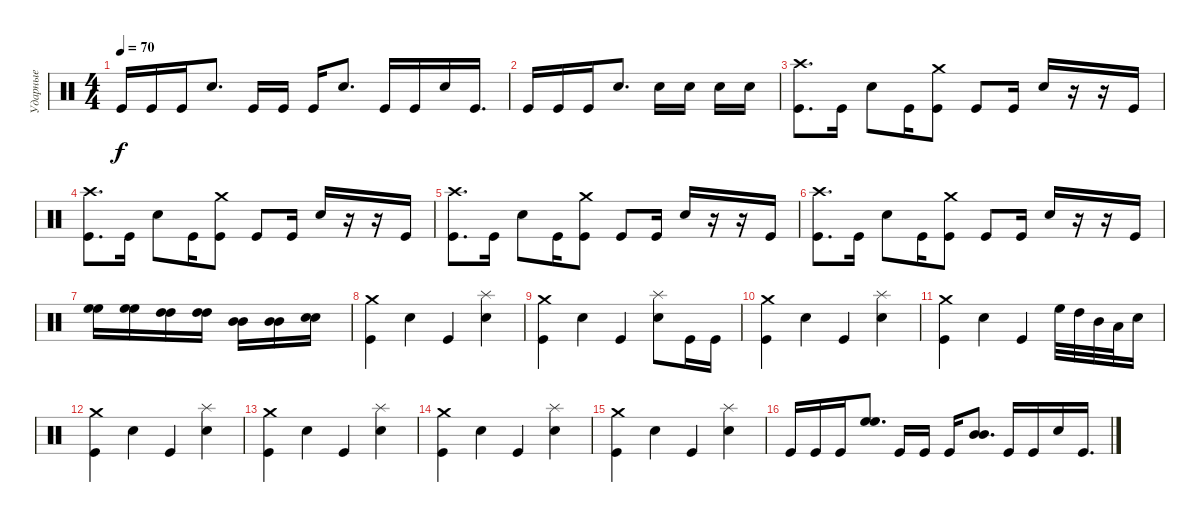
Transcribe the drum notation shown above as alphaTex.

\track ("Ударные" "Ударные") {instrument percussion}
\staff {score}
\articulation defaults
\ts (4 4)
\tempo 70
\clef neutral
\ks c "Kick (hit)".16{dy f} "Kick (hit)".16 "Kick (hit)".16 "Electric Snare (hit)".8{d} "Kick (hit)".16 "Kick (hit)".16 "Kick (hit)".16 "Electric Snare (hit)".8{d} "Kick (hit)".16 "Kick (hit)".16 "Electric Snare (hit)".16 "Kick (hit)".16{d}
|
"Kick (hit)".16 "Kick (hit)".16 "Kick (hit)".16 "Electric Snare (hit)".8{d} "Electric Snare (hit)".16 "Electric Snare (hit)".16 "Electric Snare (hit)".16 "Electric Snare (hit)".16 |
("Crash high (hit)" "Kick (hit)").8{d} "Kick (hit)".16 "Electric Snare (hit)".8 "Kick (hit)".16 ("Crash medium (hit)" "Kick (hit)").8 "Kick (hit)".8 "Kick (hit)".16 "Electric Snare (hit)".16 r.16 r.16 "Kick (hit)".16 |
("Crash high (hit)" "Kick (hit)").8{d} "Kick (hit)".16 "Electric Snare (hit)".8 "Kick (hit)".16 ("Crash medium (hit)" "Kick (hit)").8 "Kick (hit)".8 "Kick (hit)".16 "Electric Snare (hit)".16 r.16 r.16 "Kick (hit)".16 |
("Crash high (hit)" "Kick (hit)").8{d} "Kick (hit)".16 "Electric Snare (hit)".8 "Kick (hit)".16 ("Crash medium (hit)" "Kick (hit)").8 "Kick (hit)".8 "Kick (hit)".16 "Electric Snare (hit)".16 r.16 r.16 "Kick (hit)".16 |
("Crash high (hit)" "Kick (hit)").8{d} "Kick (hit)".16 "Electric Snare (hit)".8 "Kick (hit)".16 ("Crash medium (hit)" "Kick (hit)").8 "Kick (hit)".8 "Kick (hit)".16 "Electric Snare (hit)".16 r.16 r.16 "Kick (hit)".16 |
("High Floor Tom (hit)" "High Floor Tom (hit)").16 ("High Floor Tom (hit)" "High Floor Tom (hit)").16 ("High Tom (hit)" "High Tom (hit)").16 ("High Tom (hit)" "High Tom (hit)").16 ("Mid Tom (hit)" "Mid Tom (hit)").16 ("Mid Tom (hit)" "Mid Tom (hit)").16 ("Electric Snare (hit)" "Electric Snare (hit)").16 |
("Crash medium (hit)" "Kick (hit)").4 "Electric Snare (hit)".4 "Kick (hit)".4 ("Splash (hit)" "Electric Snare (hit)").4 |
("Crash medium (hit)" "Kick (hit)").4 "Electric Snare (hit)".4 "Kick (hit)".4 ("Splash (hit)" "Electric Snare (hit)").8 "Kick (hit)".16 "Kick (hit)".16 |
("Crash medium (hit)" "Kick (hit)").4 "Electric Snare (hit)".4 "Kick (hit)".4 ("Splash (hit)" "Electric Snare (hit)").4 |
("Crash medium (hit)" "Kick (hit)").4 "Electric Snare (hit)".4 "Kick (hit)".4 "High Floor Tom (hit)".32 "High Tom (hit)".32 "Mid Tom (hit)".32 "Low Tom (hit)".32 "Electric Snare (hit)".16 |
("Crash medium (hit)" "Kick (hit)").4 "Electric Snare (hit)".4 "Kick (hit)".4 ("Splash (hit)" "Electric Snare (hit)").4 |
("Crash medium (hit)" "Kick (hit)").4 "Electric Snare (hit)".4 "Kick (hit)".4 ("Splash (hit)" "Electric Snare (hit)").4 |
("Crash medium (hit)" "Kick (hit)").4 "Electric Snare (hit)".4 "Kick (hit)".4 ("Splash (hit)" "Electric Snare (hit)").4 |
("Crash medium (hit)" "Kick (hit)").4 "Electric Snare (hit)".4 "Kick (hit)".4 ("Splash (hit)" "Electric Snare (hit)").4 |
"Kick (hit)".16 "Kick (hit)".16 "Kick (hit)".16 ("High Floor Tom (hit)" "High Floor Tom (hit)").8{d} "Kick (hit)".16 "Kick (hit)".16 "Kick (hit)".16 ("Mid Tom (hit)" "Mid Tom (hit)").8{d} "Kick (hit)".16 "Kick (hit)".16 "Electric Snare (hit)".16 "Kick (hit)".16{d}
